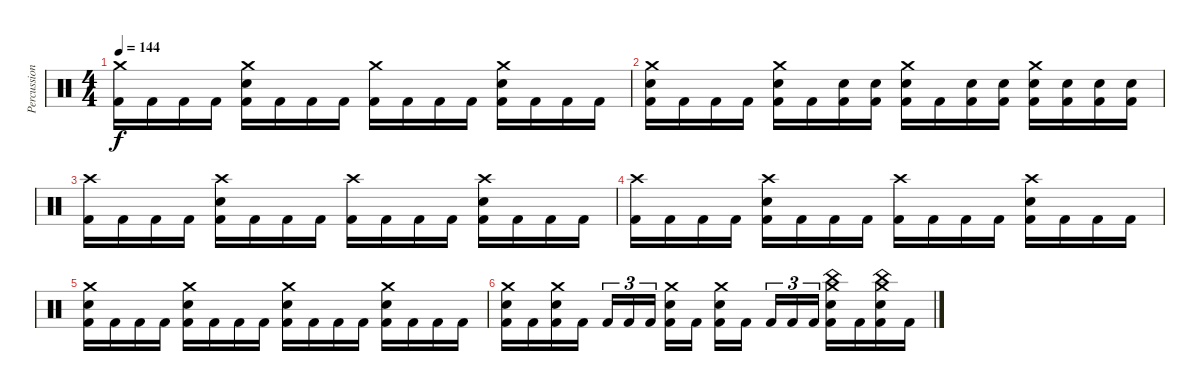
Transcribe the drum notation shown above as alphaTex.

\track ("Percussion" "Percussion") {instrument percussion}
\staff {score}
\articulation defaults
\ts (4 4)
\tempo 144
\clef neutral
\ks c
("Crash medium (hit)" "Kick (hit) 2").16{dy f} "Kick (hit) 2".16 "Kick (hit) 2".16 "Kick (hit) 2".16 ("Crash medium (hit)" "Snare (hit) 2" "Kick (hit) 2").16 "Kick (hit) 2".16 "Kick (hit) 2".16 "Kick (hit) 2".16 ("Crash medium (hit)" "Kick (hit) 2").16 "Kick (hit) 2".16 "Kick (hit) 2".16 "Kick (hit) 2".16 ("Crash medium (hit)" "Snare (hit) 2" "Kick (hit) 2").16 "Kick (hit) 2".16 "Kick (hit) 2".16 "Kick (hit) 2".16 |
("Crash medium (hit)" "Snare (hit) 2" "Kick (hit) 2").16 "Kick (hit) 2".16 "Kick (hit) 2".16 "Kick (hit) 2".16 ("Crash medium (hit)" "Snare (hit) 2" "Kick (hit) 2").16 "Kick (hit) 2".16 ("Snare (hit) 2" "Kick (hit) 2").16 ("Snare (hit) 2" "Kick (hit) 2").16 ("Crash medium (hit)" "Snare (hit) 2" "Kick (hit) 2").16 "Kick (hit) 2".16 ("Snare (hit) 2" "Kick (hit) 2").16 ("Snare (hit) 2" "Kick (hit) 2").16 ("Crash medium (hit)" "Snare (hit) 2" "Kick (hit) 2").16 ("Snare (hit) 2" "Kick (hit) 2").16 ("Snare (hit) 2" "Kick (hit) 2").16 ("Snare (hit) 2" "Kick (hit) 2").16 |
("Crash high (hit)" "Kick (hit) 2").16{volume 0} "Kick (hit) 2".16 "Kick (hit) 2".16 "Kick (hit) 2".16 ("Crash high (hit)" "Snare (hit) 2" "Kick (hit) 2").16 "Kick (hit) 2".16 "Kick (hit) 2".16 "Kick (hit) 2".16 ("Crash high (hit)" "Kick (hit) 2").16 "Kick (hit) 2".16 "Kick (hit) 2".16 "Kick (hit) 2".16 ("Crash high (hit)" "Snare (hit) 2" "Kick (hit) 2").16 "Kick (hit) 2".16 "Kick (hit) 2".16 "Kick (hit) 2".16 |
("Crash high (hit)" "Kick (hit) 2").16 "Kick (hit) 2".16 "Kick (hit) 2".16 "Kick (hit) 2".16 ("Crash high (hit)" "Snare (hit) 2" "Kick (hit) 2").16 "Kick (hit) 2".16 "Kick (hit) 2".16 "Kick (hit) 2".16 ("Crash high (hit)" "Kick (hit) 2").16 "Kick (hit) 2".16 "Kick (hit) 2".16 "Kick (hit) 2".16 ("Crash high (hit)" "Snare (hit) 2" "Kick (hit) 2").16 "Kick (hit) 2".16 "Kick (hit) 2".16 "Kick (hit) 2".16 |
("Crash medium (hit)" "Snare (hit) 2" "Kick (hit) 2").16 "Kick (hit) 2".16 "Kick (hit) 2".16 "Kick (hit) 2".16 ("Crash medium (hit)" "Snare (hit) 2" "Kick (hit) 2").16 "Kick (hit) 2".16 "Kick (hit) 2".16 "Kick (hit) 2".16 ("Crash medium (hit)" "Snare (hit) 2" "Kick (hit) 2").16 "Kick (hit) 2".16 "Kick (hit) 2".16 "Kick (hit) 2".16 ("Crash medium (hit)" "Snare (hit) 2" "Kick (hit) 2").16 "Kick (hit) 2".16 "Kick (hit) 2".16 "Kick (hit) 2".16 |
("Crash medium (hit)" "Snare (hit) 2" "Kick (hit) 2").16 "Kick (hit) 2".16 ("Crash medium (hit)" "Snare (hit) 2" "Kick (hit) 2").16 "Kick (hit) 2".16 "Kick (hit) 2".16{tu (3 2)} "Kick (hit) 2".16{tu (3 2)} "Kick (hit) 2".16{tu (3 2)} ("Crash medium (hit)" "Snare (hit) 2" "Kick (hit) 2").16 "Kick (hit) 2".16 ("Crash medium (hit)" "Snare (hit) 2" "Kick (hit) 2").16 "Kick (hit) 2".16 "Kick (hit) 2".16{tu (3 2)} "Kick (hit) 2".16{tu (3 2)} "Kick (hit) 2".16{tu (3 2)} ("Crash medium (hit)" "China (hit)" "Snare (hit) 2" "Kick (hit) 2").16 "Kick (hit) 2".16 ("China (hit)" "Crash medium (hit)" "Snare (hit) 2" "Kick (hit) 2").16 "Kick (hit) 2".16
